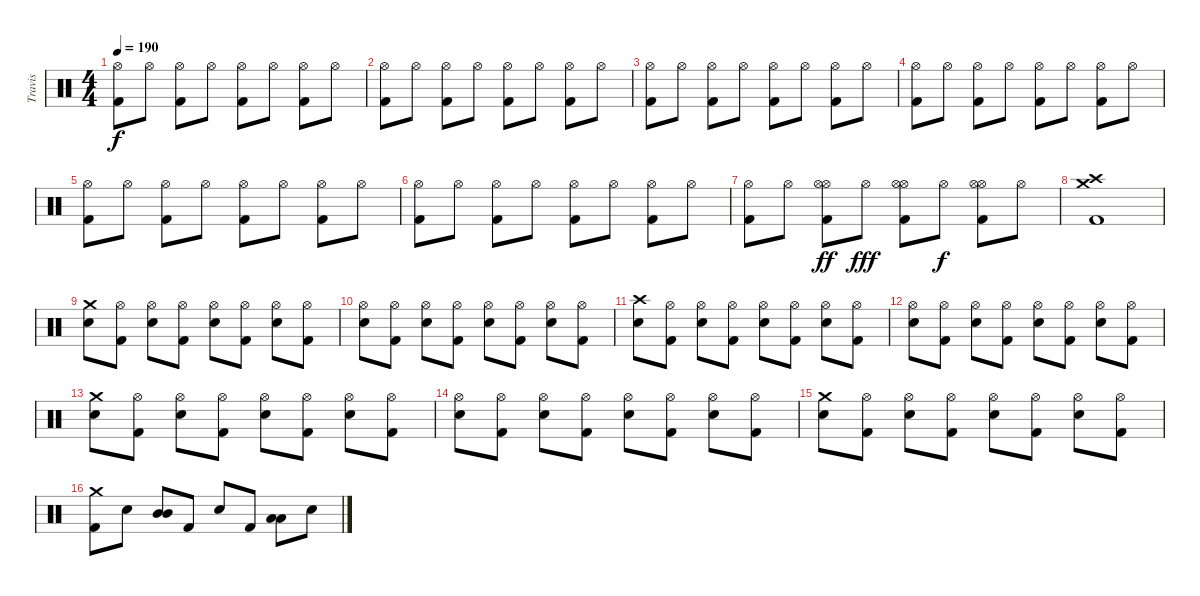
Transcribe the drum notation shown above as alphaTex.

\track ("Travis" "Travis") {instrument percussion}
\staff {score}
\articulation defaults
\ts (4 4)
\tempo 190
\clef neutral
\ks c
("Hi-Hat (open)" "Kick (hit) 2").8{dy f} "Hi-Hat (open)".8 ("Hi-Hat (open)" "Kick (hit) 2").8 "Hi-Hat (open)".8 ("Hi-Hat (open)" "Kick (hit) 2").8 "Hi-Hat (open)".8 ("Hi-Hat (open)" "Kick (hit) 2").8 "Hi-Hat (open)".8 |
("Hi-Hat (open)" "Kick (hit) 2").8 "Hi-Hat (open)".8 ("Hi-Hat (open)" "Kick (hit) 2").8 "Hi-Hat (open)".8 ("Hi-Hat (open)" "Kick (hit) 2").8 "Hi-Hat (open)".8 ("Hi-Hat (open)" "Kick (hit) 2").8 "Hi-Hat (open)".8 |
("Hi-Hat (open)" "Kick (hit) 2").8 "Hi-Hat (open)".8 ("Hi-Hat (open)" "Kick (hit) 2").8 "Hi-Hat (open)".8 ("Hi-Hat (open)" "Kick (hit) 2").8 "Hi-Hat (open)".8 ("Hi-Hat (open)" "Kick (hit) 2").8 "Hi-Hat (open)".8 |
("Hi-Hat (open)" "Kick (hit) 2").8 "Hi-Hat (open)".8 ("Hi-Hat (open)" "Kick (hit) 2").8 "Hi-Hat (open)".8 ("Hi-Hat (open)" "Kick (hit) 2").8 "Hi-Hat (open)".8 ("Hi-Hat (open)" "Kick (hit) 2").8 "Hi-Hat (open)".8 |
("Hi-Hat (open)" "Kick (hit) 2").8 "Hi-Hat (open)".8 ("Hi-Hat (open)" "Kick (hit) 2").8 "Hi-Hat (open)".8 ("Hi-Hat (open)" "Kick (hit) 2").8 "Hi-Hat (open)".8 ("Hi-Hat (open)" "Kick (hit) 2").8 "Hi-Hat (open)".8 |
("Hi-Hat (open)" "Kick (hit) 2").8 "Hi-Hat (open)".8 ("Hi-Hat (open)" "Kick (hit) 2").8 "Hi-Hat (open)".8 ("Hi-Hat (open)" "Kick (hit) 2").8 "Hi-Hat (open)".8 ("Hi-Hat (open)" "Kick (hit) 2").8 "Hi-Hat (open)".8 |
("Hi-Hat (open)" "Kick (hit) 2").8 "Hi-Hat (open)".8 ("Hi-Hat (open)" "Hi-Hat (open)" "Kick (hit) 2").8{dy ff} "Hi-Hat (open)".8{dy fff} ("Hi-Hat (open)" "Hi-Hat (open)" "Kick (hit) 2").8 "Hi-Hat (open)".8{dy f} ("Hi-Hat (open)" "Hi-Hat (open)" "Kick (hit) 2").8 "Hi-Hat (open)".8 |
("Crash high (hit)" "Crash medium (hit)" "Kick (hit) 2").1 |
("Crash medium (hit)" "Electric Snare (hit)").8 ("Hi-Hat (open)" "Kick (hit) 2").8 ("Hi-Hat (open)" "Electric Snare (hit)").8 ("Hi-Hat (open)" "Kick (hit) 2").8 ("Hi-Hat (open)" "Electric Snare (hit)").8 ("Hi-Hat (open)" "Kick (hit) 2").8 ("Hi-Hat (open)" "Electric Snare (hit)").8 ("Hi-Hat (open)" "Kick (hit) 2").8 |
("Hi-Hat (open)" "Electric Snare (hit)").8 ("Hi-Hat (open)" "Kick (hit) 2").8 ("Hi-Hat (open)" "Electric Snare (hit)").8 ("Hi-Hat (open)" "Kick (hit) 2").8 ("Hi-Hat (open)" "Electric Snare (hit)").8 ("Hi-Hat (open)" "Kick (hit) 2").8 ("Hi-Hat (open)" "Electric Snare (hit)").8 ("Hi-Hat (open)" "Kick (hit) 2").8 |
("Crash high (hit)" "Electric Snare (hit)").8 ("Hi-Hat (open)" "Kick (hit) 2").8 ("Hi-Hat (open)" "Electric Snare (hit)").8 ("Hi-Hat (open)" "Kick (hit) 2").8 ("Hi-Hat (open)" "Electric Snare (hit)").8 ("Hi-Hat (open)" "Kick (hit) 2").8 ("Hi-Hat (open)" "Electric Snare (hit)").8 ("Hi-Hat (open)" "Kick (hit) 2").8 |
("Hi-Hat (open)" "Electric Snare (hit)").8 ("Hi-Hat (open)" "Kick (hit) 2").8 ("Hi-Hat (open)" "Electric Snare (hit)").8 ("Hi-Hat (open)" "Kick (hit) 2").8 ("Hi-Hat (open)" "Electric Snare (hit)").8 ("Hi-Hat (open)" "Kick (hit) 2").8 ("Hi-Hat (open)" "Electric Snare (hit)").8 ("Hi-Hat (open)" "Kick (hit) 2").8 |
("Crash medium (hit)" "Electric Snare (hit)").8 ("Hi-Hat (open)" "Kick (hit) 2").8 ("Hi-Hat (open)" "Electric Snare (hit)").8 ("Hi-Hat (open)" "Kick (hit) 2").8 ("Hi-Hat (open)" "Electric Snare (hit)").8 ("Hi-Hat (open)" "Kick (hit) 2").8 ("Hi-Hat (open)" "Electric Snare (hit)").8 ("Hi-Hat (open)" "Kick (hit) 2").8 |
("Hi-Hat (open)" "Electric Snare (hit)").8 ("Hi-Hat (open)" "Kick (hit) 2").8 ("Hi-Hat (open)" "Electric Snare (hit)").8 ("Hi-Hat (open)" "Kick (hit) 2").8 ("Hi-Hat (open)" "Electric Snare (hit)").8 ("Hi-Hat (open)" "Kick (hit) 2").8 ("Hi-Hat (open)" "Electric Snare (hit)").8 ("Hi-Hat (open)" "Kick (hit) 2").8 |
("Crash medium (hit)" "Electric Snare (hit)").8 ("Hi-Hat (open)" "Kick (hit) 2").8 ("Hi-Hat (open)" "Electric Snare (hit)").8 ("Hi-Hat (open)" "Kick (hit) 2").8 ("Hi-Hat (open)" "Electric Snare (hit)").8 ("Hi-Hat (open)" "Kick (hit) 2").8 ("Hi-Hat (open)" "Electric Snare (hit)").8 ("Hi-Hat (open)" "Kick (hit) 2").8 |
("Crash medium (hit)" "Kick (hit) 2").8 "Electric Snare (hit)".8 ("Mid Tom (hit)" "Mid Tom (hit)").8 "Kick (hit) 2".8 "Electric Snare (hit)".8 "Kick (hit) 2".8 ("Low Tom (hit)" "Low Tom (hit)").8 "Electric Snare (hit)".8
